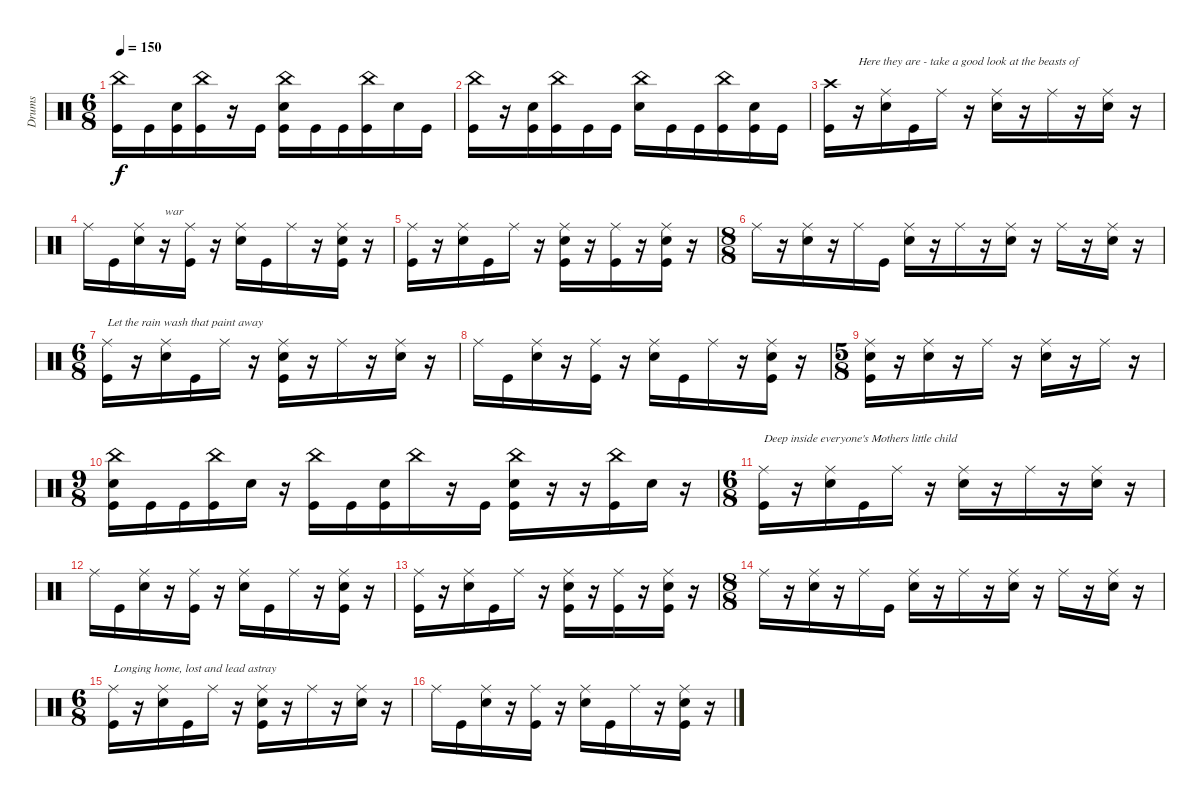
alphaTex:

\track ("Drums" "Drums") {instrument percussion}
\staff {score}
\articulation defaults
\ts (6 8)
\tempo 150
\clef neutral
\ks c
("China (hit)" "Kick (hit)").16{dy f} "Kick (hit)".16 ("Snare (hit) 2" "Kick (hit)").16 ("China (hit)" "Kick (hit)").16 r.16 "Kick (hit)".16 ("China (hit)" "Snare (hit) 2" "Kick (hit)").16 "Kick (hit)".16 "Kick (hit)".16 ("China (hit)" "Kick (hit)").16 "Snare (hit) 2".16 "Kick (hit)".16 |
("China (hit)" "Kick (hit)").16 r.16 ("Snare (hit) 2" "Kick (hit)").16 ("China (hit)" "Kick (hit)").16 "Kick (hit)".16 "Kick (hit)".16 ("China (hit)" "Snare (hit) 2").16 "Kick (hit)".16 "Kick (hit)".16 ("China (hit)" "Kick (hit)").16 ("Snare (hit) 2" "Kick (hit)").16 "Kick (hit)".16 |
("Crash high (hit)" "Kick (hit)").16 r.16{txt "Here they are - take a good look at the beasts of "} ("Ride (middle)" "Snare (hit) 2").16 "Kick (hit)".16 "Ride (middle)".16 r.16 ("Ride (middle)" "Snare (hit) 2").16 r.16 "Ride (middle)".16 r.16 ("Ride (middle)" "Snare (hit) 2").16 r.16 |
"Ride (middle)".16 "Kick (hit)".16 ("Ride (middle)" "Snare (hit) 2").16 r.16{txt "war"} ("Ride (middle)" "Kick (hit)").16 r.16 ("Ride (middle)" "Snare (hit) 2").16 "Kick (hit)".16 "Ride (middle)".16 r.16 ("Ride (middle)" "Snare (hit) 2" "Kick (hit)").16 r.16 |
("Ride (middle)" "Kick (hit)").16 r.16 ("Ride (middle)" "Snare (hit) 2").16 "Kick (hit)".16 "Ride (middle)".16 r.16 ("Ride (middle)" "Snare (hit) 2" "Kick (hit)").16 r.16 ("Ride (middle)" "Kick (hit)").16 r.16 ("Ride (middle)" "Snare (hit) 2" "Kick (hit)").16 r.16 |
\ts (8 8)
"Ride (middle)".16 r.16 ("Ride (middle)" "Snare (hit) 2").16 r.16 "Ride (middle)".16 "Kick (hit)".16 ("Ride (middle)" "Snare (hit) 2").16 r.16 "Ride (middle)".16 r.16 ("Ride (middle)" "Snare (hit) 2").16 r.16 "Ride (middle)".16 r.16 ("Ride (middle)" "Snare (hit) 2").16 r.16 |
\ts (6 8)
("Ride (middle)" "Kick (hit)").16{txt "Let the rain wash that paint away"} r.16 ("Ride (middle)" "Snare (hit) 2").16 "Kick (hit)".16 "Ride (middle)".16 r.16 ("Ride (middle)" "Snare (hit) 2" "Kick (hit)").16 r.16 "Ride (middle)".16 r.16 ("Ride (middle)" "Snare (hit) 2").16 r.16 |
"Ride (middle)".16 "Kick (hit)".16 ("Ride (middle)" "Snare (hit) 2").16 r.16 ("Ride (middle)" "Kick (hit)").16 r.16 ("Ride (middle)" "Snare (hit) 2").16 "Kick (hit)".16 "Ride (middle)".16 r.16 ("Ride (middle)" "Snare (hit) 2" "Kick (hit)").16 r.16 |
\ts (5 8)
("Snare (hit)" "Ride (middle)" "Kick (hit)").16 r.16 ("Ride (middle)" "Snare (hit) 2").16 r.16 "Ride (middle)".16 r.16 ("Ride (middle)" "Snare (hit) 2").16 r.16 "Ride (middle)".16 r.16 |
\ts (9 8)
("China (hit)" "Snare (hit) 2" "Kick (hit)").16 "Kick (hit)".16 "Kick (hit)".16 ("China (hit)" "Kick (hit)").16 "Snare (hit) 2".16 r.16 ("China (hit)" "Kick (hit)").16 "Kick (hit)".16 ("Snare (hit) 2" "Kick (hit)").16 "China (hit)".16 r.16 "Kick (hit)".16 ("China (hit)" "Snare (hit) 2" "Kick (hit)").16 r.16 r.16 ("China (hit)" "Kick (hit)").16 "Snare (hit) 2".16 r.16 |
\ts (6 8)
("Ride (middle)" "Kick (hit)").16{txt "Deep inside everyone's Mothers little child"} r.16 ("Ride (middle)" "Snare (hit) 2").16 "Kick (hit)".16 "Ride (middle)".16 r.16 ("Ride (middle)" "Snare (hit) 2").16 r.16 "Ride (middle)".16 r.16 ("Ride (middle)" "Snare (hit) 2").16 r.16 |
"Ride (middle)".16 "Kick (hit)".16 ("Ride (middle)" "Snare (hit) 2").16 r.16 ("Ride (middle)" "Kick (hit)").16 r.16 ("Ride (middle)" "Snare (hit) 2").16 "Kick (hit)".16 "Ride (middle)".16 r.16 ("Ride (middle)" "Snare (hit) 2" "Kick (hit)").16 r.16 |
("Ride (middle)" "Kick (hit)").16 r.16 ("Ride (middle)" "Snare (hit) 2").16 "Kick (hit)".16 "Ride (middle)".16 r.16 ("Ride (middle)" "Snare (hit) 2" "Kick (hit)").16 r.16 ("Ride (middle)" "Kick (hit)").16 r.16 ("Ride (middle)" "Snare (hit) 2" "Kick (hit)").16 r.16 |
\ts (8 8)
"Ride (middle)".16 r.16 ("Ride (middle)" "Snare (hit) 2").16 r.16 "Ride (middle)".16 "Kick (hit)".16 ("Ride (middle)" "Snare (hit) 2").16 r.16 "Ride (middle)".16 r.16 ("Ride (middle)" "Snare (hit) 2").16 r.16 "Ride (middle)".16 r.16 ("Ride (middle)" "Snare (hit) 2").16 r.16 |
\ts (6 8)
("Ride (middle)" "Kick (hit)").16{txt "Longing home, lost and lead astray"} r.16 ("Ride (middle)" "Snare (hit) 2").16 "Kick (hit)".16 "Ride (middle)".16 r.16 ("Ride (middle)" "Snare (hit) 2" "Kick (hit)").16 r.16 "Ride (middle)".16 r.16 ("Ride (middle)" "Snare (hit) 2").16 r.16 |
"Ride (middle)".16 "Kick (hit)".16 ("Ride (middle)" "Snare (hit) 2").16 r.16 ("Ride (middle)" "Kick (hit)").16 r.16 ("Ride (middle)" "Snare (hit) 2").16 "Kick (hit)".16 "Ride (middle)".16 r.16 ("Ride (middle)" "Snare (hit) 2" "Kick (hit)").16 r.16
